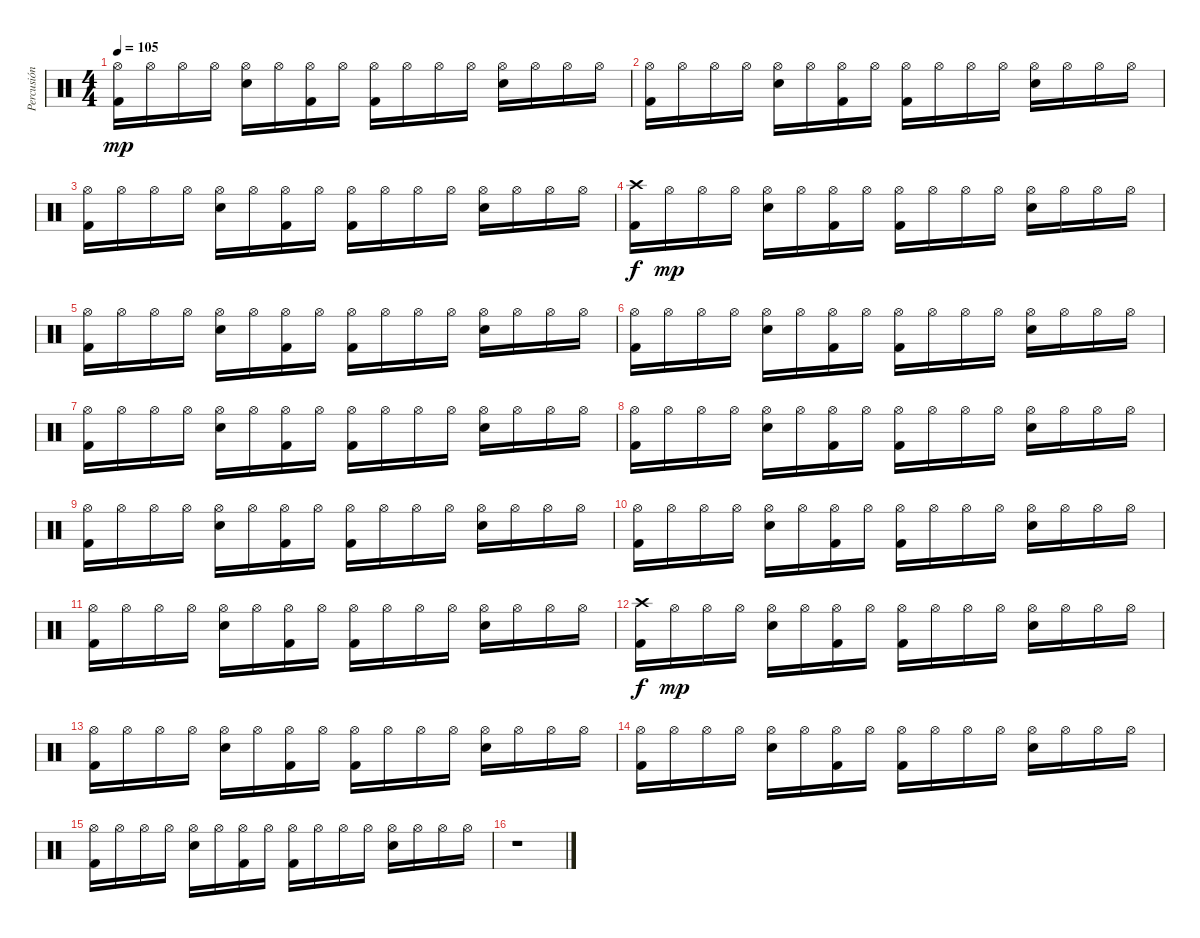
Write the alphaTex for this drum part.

\track ("Percusión" "Percusión") {instrument percussion}
\staff {score}
\articulation defaults
\ts (4 4)
\tempo 105
\clef neutral
\ks c
("Hi-Hat (open)" "Kick (hit) 2").16{dy mp} "Hi-Hat (open)".16 "Hi-Hat (open)".16 "Hi-Hat (open)".16 ("Hi-Hat (open)" "Snare (hit) 2").16 "Hi-Hat (open)".16 ("Hi-Hat (open)" "Kick (hit) 2").16 "Hi-Hat (open)".16 ("Hi-Hat (open)" "Kick (hit) 2").16 "Hi-Hat (open)".16 "Hi-Hat (open)".16 "Hi-Hat (open)".16 ("Hi-Hat (open)" "Snare (hit) 2").16 "Hi-Hat (open)".16 "Hi-Hat (open)".16 "Hi-Hat (open)".16 |
("Hi-Hat (open)" "Kick (hit) 2").16 "Hi-Hat (open)".16 "Hi-Hat (open)".16 "Hi-Hat (open)".16 ("Hi-Hat (open)" "Snare (hit) 2").16 "Hi-Hat (open)".16 ("Hi-Hat (open)" "Kick (hit) 2").16 "Hi-Hat (open)".16 ("Hi-Hat (open)" "Kick (hit) 2").16 "Hi-Hat (open)".16 "Hi-Hat (open)".16 "Hi-Hat (open)".16 ("Hi-Hat (open)" "Snare (hit) 2").16 "Hi-Hat (open)".16 "Hi-Hat (open)".16 "Hi-Hat (open)".16 |
("Hi-Hat (open)" "Kick (hit) 2").16 "Hi-Hat (open)".16 "Hi-Hat (open)".16 "Hi-Hat (open)".16 ("Hi-Hat (open)" "Snare (hit) 2").16 "Hi-Hat (open)".16 ("Hi-Hat (open)" "Kick (hit) 2").16 "Hi-Hat (open)".16 ("Hi-Hat (open)" "Kick (hit) 2").16 "Hi-Hat (open)".16 "Hi-Hat (open)".16 "Hi-Hat (open)".16 ("Hi-Hat (open)" "Snare (hit) 2").16 "Hi-Hat (open)".16 "Hi-Hat (open)".16 "Hi-Hat (open)".16 |
("Crash high (hit)" "Kick (hit) 2").16{dy f} "Hi-Hat (open)".16{dy mp} "Hi-Hat (open)".16 "Hi-Hat (open)".16 ("Hi-Hat (open)" "Snare (hit) 2").16 "Hi-Hat (open)".16 ("Hi-Hat (open)" "Kick (hit) 2").16 "Hi-Hat (open)".16 ("Hi-Hat (open)" "Kick (hit) 2").16 "Hi-Hat (open)".16 "Hi-Hat (open)".16 "Hi-Hat (open)".16 ("Hi-Hat (open)" "Snare (hit) 2").16 "Hi-Hat (open)".16 "Hi-Hat (open)".16 "Hi-Hat (open)".16 |
("Hi-Hat (open)" "Kick (hit) 2").16 "Hi-Hat (open)".16 "Hi-Hat (open)".16 "Hi-Hat (open)".16 ("Hi-Hat (open)" "Snare (hit) 2").16 "Hi-Hat (open)".16 ("Hi-Hat (open)" "Kick (hit) 2").16 "Hi-Hat (open)".16 ("Hi-Hat (open)" "Kick (hit) 2").16 "Hi-Hat (open)".16 "Hi-Hat (open)".16 "Hi-Hat (open)".16 ("Hi-Hat (open)" "Snare (hit) 2").16 "Hi-Hat (open)".16 "Hi-Hat (open)".16 "Hi-Hat (open)".16 |
("Hi-Hat (open)" "Kick (hit) 2").16 "Hi-Hat (open)".16 "Hi-Hat (open)".16 "Hi-Hat (open)".16 ("Hi-Hat (open)" "Snare (hit) 2").16 "Hi-Hat (open)".16 ("Hi-Hat (open)" "Kick (hit) 2").16 "Hi-Hat (open)".16 ("Hi-Hat (open)" "Kick (hit) 2").16 "Hi-Hat (open)".16 "Hi-Hat (open)".16 "Hi-Hat (open)".16 ("Hi-Hat (open)" "Snare (hit) 2").16 "Hi-Hat (open)".16 "Hi-Hat (open)".16 "Hi-Hat (open)".16 |
("Hi-Hat (open)" "Kick (hit) 2").16 "Hi-Hat (open)".16 "Hi-Hat (open)".16 "Hi-Hat (open)".16 ("Hi-Hat (open)" "Snare (hit) 2").16 "Hi-Hat (open)".16 ("Hi-Hat (open)" "Kick (hit) 2").16 "Hi-Hat (open)".16 ("Hi-Hat (open)" "Kick (hit) 2").16 "Hi-Hat (open)".16 "Hi-Hat (open)".16 "Hi-Hat (open)".16 ("Hi-Hat (open)" "Snare (hit) 2").16 "Hi-Hat (open)".16 "Hi-Hat (open)".16 "Hi-Hat (open)".16 |
("Hi-Hat (open)" "Kick (hit) 2").16 "Hi-Hat (open)".16 "Hi-Hat (open)".16 "Hi-Hat (open)".16 ("Hi-Hat (open)" "Snare (hit) 2").16 "Hi-Hat (open)".16 ("Hi-Hat (open)" "Kick (hit) 2").16 "Hi-Hat (open)".16 ("Hi-Hat (open)" "Kick (hit) 2").16 "Hi-Hat (open)".16 "Hi-Hat (open)".16 "Hi-Hat (open)".16 ("Hi-Hat (open)" "Snare (hit) 2").16 "Hi-Hat (open)".16 "Hi-Hat (open)".16 "Hi-Hat (open)".16 |
("Hi-Hat (open)" "Kick (hit) 2").16 "Hi-Hat (open)".16 "Hi-Hat (open)".16 "Hi-Hat (open)".16 ("Hi-Hat (open)" "Snare (hit) 2").16 "Hi-Hat (open)".16 ("Hi-Hat (open)" "Kick (hit) 2").16 "Hi-Hat (open)".16 ("Hi-Hat (open)" "Kick (hit) 2").16 "Hi-Hat (open)".16 "Hi-Hat (open)".16 "Hi-Hat (open)".16 ("Hi-Hat (open)" "Snare (hit) 2").16 "Hi-Hat (open)".16 "Hi-Hat (open)".16 "Hi-Hat (open)".16 |
("Hi-Hat (open)" "Kick (hit) 2").16 "Hi-Hat (open)".16 "Hi-Hat (open)".16 "Hi-Hat (open)".16 ("Hi-Hat (open)" "Snare (hit) 2").16 "Hi-Hat (open)".16 ("Hi-Hat (open)" "Kick (hit) 2").16 "Hi-Hat (open)".16 ("Hi-Hat (open)" "Kick (hit) 2").16 "Hi-Hat (open)".16 "Hi-Hat (open)".16 "Hi-Hat (open)".16 ("Hi-Hat (open)" "Snare (hit) 2").16 "Hi-Hat (open)".16 "Hi-Hat (open)".16 "Hi-Hat (open)".16 |
("Hi-Hat (open)" "Kick (hit) 2").16 "Hi-Hat (open)".16 "Hi-Hat (open)".16 "Hi-Hat (open)".16 ("Hi-Hat (open)" "Snare (hit) 2").16 "Hi-Hat (open)".16 ("Hi-Hat (open)" "Kick (hit) 2").16 "Hi-Hat (open)".16 ("Hi-Hat (open)" "Kick (hit) 2").16 "Hi-Hat (open)".16 "Hi-Hat (open)".16 "Hi-Hat (open)".16 ("Hi-Hat (open)" "Snare (hit) 2").16 "Hi-Hat (open)".16 "Hi-Hat (open)".16 "Hi-Hat (open)".16 |
("Crash high (hit)" "Kick (hit) 2").16{dy f volume 3} "Hi-Hat (open)".16{dy mp} "Hi-Hat (open)".16 "Hi-Hat (open)".16 ("Hi-Hat (open)" "Snare (hit) 2").16 "Hi-Hat (open)".16 ("Hi-Hat (open)" "Kick (hit) 2").16 "Hi-Hat (open)".16 ("Hi-Hat (open)" "Kick (hit) 2").16 "Hi-Hat (open)".16 "Hi-Hat (open)".16 "Hi-Hat (open)".16 ("Hi-Hat (open)" "Snare (hit) 2").16 "Hi-Hat (open)".16 "Hi-Hat (open)".16 "Hi-Hat (open)".16 |
("Hi-Hat (open)" "Kick (hit) 2").16 "Hi-Hat (open)".16 "Hi-Hat (open)".16 "Hi-Hat (open)".16 ("Hi-Hat (open)" "Snare (hit) 2").16 "Hi-Hat (open)".16 ("Hi-Hat (open)" "Kick (hit) 2").16 "Hi-Hat (open)".16 ("Hi-Hat (open)" "Kick (hit) 2").16 "Hi-Hat (open)".16 "Hi-Hat (open)".16 "Hi-Hat (open)".16 ("Hi-Hat (open)" "Snare (hit) 2").16 "Hi-Hat (open)".16 "Hi-Hat (open)".16 "Hi-Hat (open)".16 |
("Hi-Hat (open)" "Kick (hit) 2").16{volume 0} "Hi-Hat (open)".16 "Hi-Hat (open)".16 "Hi-Hat (open)".16 ("Hi-Hat (open)" "Snare (hit) 2").16 "Hi-Hat (open)".16 ("Hi-Hat (open)" "Kick (hit) 2").16 "Hi-Hat (open)".16 ("Hi-Hat (open)" "Kick (hit) 2").16 "Hi-Hat (open)".16 "Hi-Hat (open)".16 "Hi-Hat (open)".16 ("Hi-Hat (open)" "Snare (hit) 2").16 "Hi-Hat (open)".16 "Hi-Hat (open)".16 "Hi-Hat (open)".16 |
("Hi-Hat (open)" "Kick (hit) 2").16 "Hi-Hat (open)".16 "Hi-Hat (open)".16 "Hi-Hat (open)".16 ("Hi-Hat (open)" "Snare (hit) 2").16 "Hi-Hat (open)".16 ("Hi-Hat (open)" "Kick (hit) 2").16 "Hi-Hat (open)".16 ("Hi-Hat (open)" "Kick (hit) 2").16 "Hi-Hat (open)".16 "Hi-Hat (open)".16 "Hi-Hat (open)".16 ("Hi-Hat (open)" "Snare (hit) 2").16 "Hi-Hat (open)".16 "Hi-Hat (open)".16 "Hi-Hat (open)".16 |
r.1
